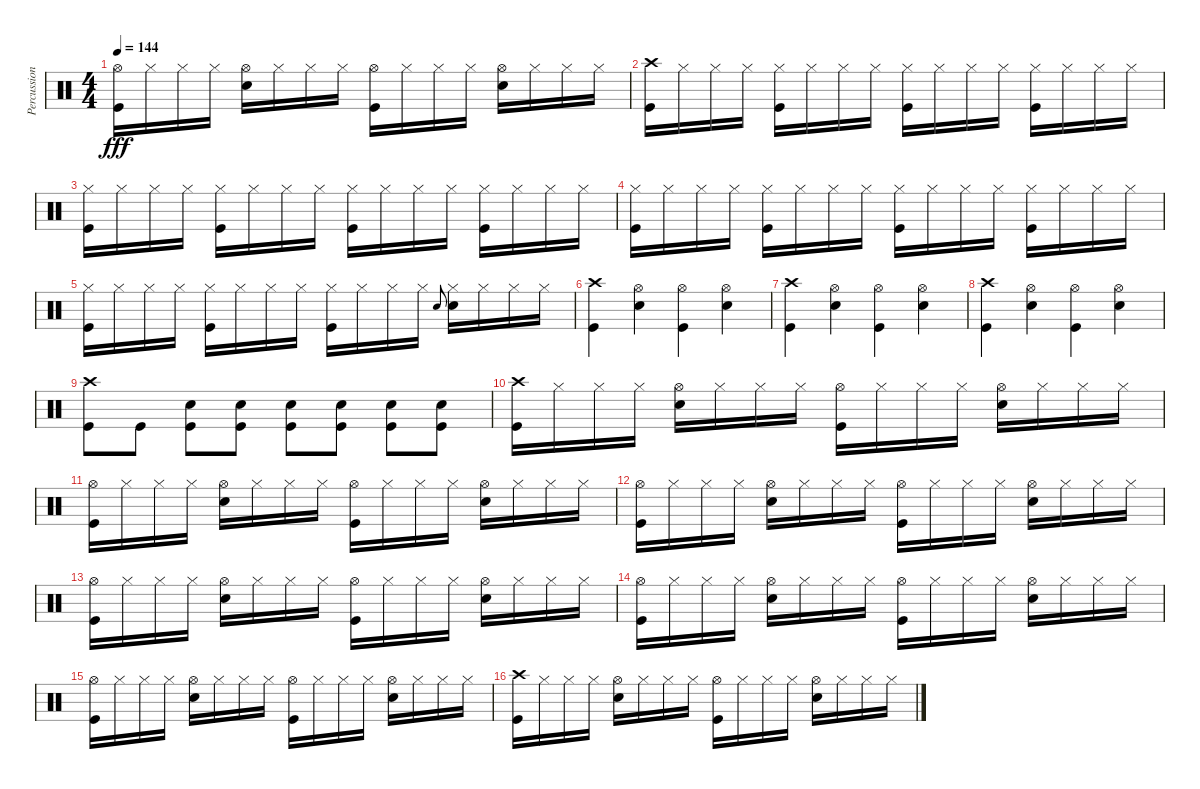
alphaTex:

\track ("Percussions" "Percussion") {instrument percussion}
\staff {score}
\articulation defaults
\ts (4 4)
\tempo 144
\clef neutral
\ks c
("Hi-Hat (open)" "Kick (hit)").16{dy fff} "Hi-Hat (closed)".16 "Hi-Hat (closed)".16 "Hi-Hat (closed)".16 ("Hi-Hat (open)" "Snare (hit) 2").16 "Hi-Hat (closed)".16 "Hi-Hat (closed)".16 "Hi-Hat (closed)".16 ("Hi-Hat (open)" "Kick (hit)").16 "Hi-Hat (closed)".16 "Hi-Hat (closed)".16 "Hi-Hat (closed)".16 ("Hi-Hat (open)" "Snare (hit) 2").16 "Hi-Hat (closed)".16 "Hi-Hat (closed)".16 "Hi-Hat (closed)".16 |
("Crash high (hit)" "Kick (hit)").16 "Hi-Hat (closed)".16 "Hi-Hat (closed)".16 "Hi-Hat (closed)".16 ("Hi-Hat (closed)" "Kick (hit)").16 "Hi-Hat (closed)".16 "Hi-Hat (closed)".16 "Hi-Hat (closed)".16 ("Hi-Hat (closed)" "Kick (hit)").16 "Hi-Hat (closed)".16 "Hi-Hat (closed)".16 "Hi-Hat (closed)".16 ("Hi-Hat (closed)" "Kick (hit)").16 "Hi-Hat (closed)".16 "Hi-Hat (closed)".16 "Hi-Hat (closed)".16 |
("Hi-Hat (closed)" "Kick (hit)").16 "Hi-Hat (closed)".16 "Hi-Hat (closed)".16 "Hi-Hat (closed)".16 ("Hi-Hat (closed)" "Kick (hit)").16 "Hi-Hat (closed)".16 "Hi-Hat (closed)".16 "Hi-Hat (closed)".16 ("Hi-Hat (closed)" "Kick (hit)").16 "Hi-Hat (closed)".16 "Hi-Hat (closed)".16 "Hi-Hat (closed)".16 ("Hi-Hat (closed)" "Kick (hit)").16 "Hi-Hat (closed)".16 "Hi-Hat (closed)".16 "Hi-Hat (closed)".16 |
("Hi-Hat (closed)" "Kick (hit)").16 "Hi-Hat (closed)".16 "Hi-Hat (closed)".16 "Hi-Hat (closed)".16 ("Hi-Hat (closed)" "Kick (hit)").16 "Hi-Hat (closed)".16 "Hi-Hat (closed)".16 "Hi-Hat (closed)".16 ("Hi-Hat (closed)" "Kick (hit)").16 "Hi-Hat (closed)".16 "Hi-Hat (closed)".16 "Hi-Hat (closed)".16 ("Hi-Hat (closed)" "Kick (hit)").16 "Hi-Hat (closed)".16 "Hi-Hat (closed)".16 "Hi-Hat (closed)".16 |
("Hi-Hat (closed)" "Kick (hit)").16 "Hi-Hat (closed)".16 "Hi-Hat (closed)".16 "Hi-Hat (closed)".16 ("Hi-Hat (closed)" "Kick (hit)").16 "Hi-Hat (closed)".16 "Hi-Hat (closed)".16 "Hi-Hat (closed)".16 ("Hi-Hat (closed)" "Kick (hit)").16 "Hi-Hat (closed)".16 "Hi-Hat (closed)".16 "Hi-Hat (closed)".16 "Snare (hit) 2".8{gr onbeat} ("Hi-Hat (closed)" "Snare (hit) 2").16 "Hi-Hat (closed)".16 "Hi-Hat (closed)".16 "Hi-Hat (closed)".16 |
("Crash high (hit)" "Kick (hit)").4 ("Hi-Hat (open)" "Snare (hit) 2").4 ("Hi-Hat (open)" "Kick (hit)").4 ("Hi-Hat (open)" "Snare (hit) 2").4 |
("Crash high (hit)" "Kick (hit)").4 ("Hi-Hat (open)" "Snare (hit) 2").4 ("Hi-Hat (open)" "Kick (hit)").4 ("Hi-Hat (open)" "Snare (hit) 2").4 |
("Crash high (hit)" "Kick (hit)").4 ("Hi-Hat (open)" "Snare (hit) 2").4 ("Hi-Hat (open)" "Kick (hit)").4 ("Hi-Hat (open)" "Snare (hit) 2").4 |
("Crash high (hit)" "Kick (hit)").8 "Kick (hit)".8 ("Snare (hit) 2" "Kick (hit)").8{beam Down} ("Snare (hit) 2" "Kick (hit)").8{beam Down} ("Snare (hit) 2" "Kick (hit)").8{beam Down} ("Snare (hit) 2" "Kick (hit)").8{beam Down} ("Snare (hit) 2" "Kick (hit)").8{beam Down} ("Snare (hit) 2" "Kick (hit)").8{beam Down} |
("Crash high (hit)" "Kick (hit)").16 "Hi-Hat (closed)".16 "Hi-Hat (closed)".16 "Hi-Hat (closed)".16 ("Hi-Hat (open)" "Snare (hit) 2").16 "Hi-Hat (closed)".16 "Hi-Hat (closed)".16 "Hi-Hat (closed)".16 ("Hi-Hat (open)" "Kick (hit)").16 "Hi-Hat (closed)".16 "Hi-Hat (closed)".16 "Hi-Hat (closed)".16 ("Hi-Hat (open)" "Snare (hit) 2").16 "Hi-Hat (closed)".16 "Hi-Hat (closed)".16 "Hi-Hat (closed)".16 |
("Hi-Hat (open)" "Kick (hit)").16 "Hi-Hat (closed)".16 "Hi-Hat (closed)".16 "Hi-Hat (closed)".16 ("Hi-Hat (open)" "Snare (hit) 2").16 "Hi-Hat (closed)".16 "Hi-Hat (closed)".16 "Hi-Hat (closed)".16 ("Hi-Hat (open)" "Kick (hit)").16 "Hi-Hat (closed)".16 "Hi-Hat (closed)".16 "Hi-Hat (closed)".16 ("Hi-Hat (open)" "Snare (hit) 2").16 "Hi-Hat (closed)".16 "Hi-Hat (closed)".16 "Hi-Hat (closed)".16 |
("Hi-Hat (open)" "Kick (hit)").16 "Hi-Hat (closed)".16 "Hi-Hat (closed)".16 "Hi-Hat (closed)".16 ("Hi-Hat (open)" "Snare (hit) 2").16 "Hi-Hat (closed)".16 "Hi-Hat (closed)".16 "Hi-Hat (closed)".16 ("Hi-Hat (open)" "Kick (hit)").16 "Hi-Hat (closed)".16 "Hi-Hat (closed)".16 "Hi-Hat (closed)".16 ("Hi-Hat (open)" "Snare (hit) 2").16 "Hi-Hat (closed)".16 "Hi-Hat (closed)".16 "Hi-Hat (closed)".16 |
("Hi-Hat (open)" "Kick (hit)").16 "Hi-Hat (closed)".16 "Hi-Hat (closed)".16 "Hi-Hat (closed)".16 ("Hi-Hat (open)" "Snare (hit) 2").16 "Hi-Hat (closed)".16 "Hi-Hat (closed)".16 "Hi-Hat (closed)".16 ("Hi-Hat (open)" "Kick (hit)").16 "Hi-Hat (closed)".16 "Hi-Hat (closed)".16 "Hi-Hat (closed)".16 ("Hi-Hat (open)" "Snare (hit) 2").16 "Hi-Hat (closed)".16 "Hi-Hat (closed)".16 "Hi-Hat (closed)".16 |
("Hi-Hat (open)" "Kick (hit)").16 "Hi-Hat (closed)".16 "Hi-Hat (closed)".16 "Hi-Hat (closed)".16 ("Hi-Hat (open)" "Snare (hit) 2").16 "Hi-Hat (closed)".16 "Hi-Hat (closed)".16 "Hi-Hat (closed)".16 ("Hi-Hat (open)" "Kick (hit)").16 "Hi-Hat (closed)".16 "Hi-Hat (closed)".16 "Hi-Hat (closed)".16 ("Hi-Hat (open)" "Snare (hit) 2").16 "Hi-Hat (closed)".16 "Hi-Hat (closed)".16 "Hi-Hat (closed)".16 |
("Hi-Hat (open)" "Kick (hit)").16 "Hi-Hat (closed)".16 "Hi-Hat (closed)".16 "Hi-Hat (closed)".16 ("Hi-Hat (open)" "Snare (hit) 2").16 "Hi-Hat (closed)".16 "Hi-Hat (closed)".16 "Hi-Hat (closed)".16 ("Hi-Hat (open)" "Kick (hit)").16 "Hi-Hat (closed)".16 "Hi-Hat (closed)".16 "Hi-Hat (closed)".16 ("Hi-Hat (open)" "Snare (hit) 2").16 "Hi-Hat (closed)".16 "Hi-Hat (closed)".16 "Hi-Hat (closed)".16 |
("Crash high (hit)" "Kick (hit)").16 "Hi-Hat (closed)".16 "Hi-Hat (closed)".16 "Hi-Hat (closed)".16 ("Hi-Hat (open)" "Snare (hit) 2").16 "Hi-Hat (closed)".16 "Hi-Hat (closed)".16 "Hi-Hat (closed)".16 ("Hi-Hat (open)" "Kick (hit)").16 "Hi-Hat (closed)".16 "Hi-Hat (closed)".16 "Hi-Hat (closed)".16 ("Hi-Hat (open)" "Snare (hit) 2").16 "Hi-Hat (closed)".16 "Hi-Hat (closed)".16 "Hi-Hat (closed)".16
